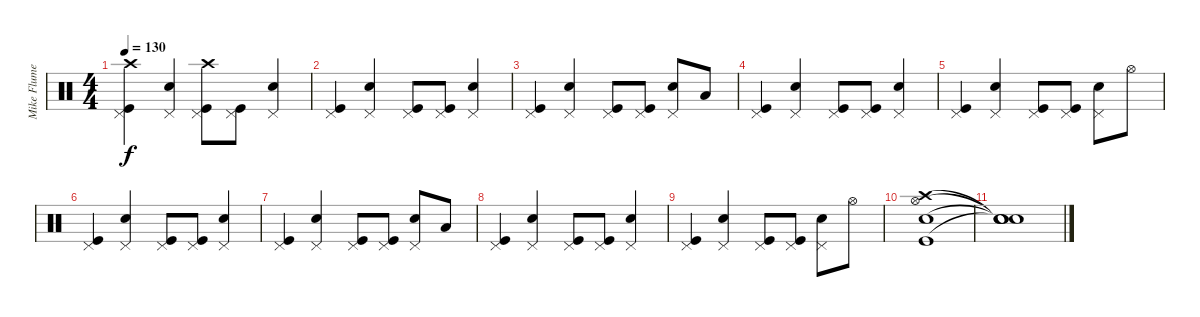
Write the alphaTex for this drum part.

\track ("Mike Flumee" "Mike Flume") {instrument percussion}
\staff {score}
\articulation defaults
\ts (4 4)
\tempo 130
\clef neutral
\ks c
("Crash high (hit)" "Pedal Hi-Hat (hit)" "Kick (hit)").4{dy f} ("Pedal Hi-Hat (hit)" "Electric Snare (hit)").4 ("Crash high (hit)" "Pedal Hi-Hat (hit)" "Kick (hit)").8 ("Pedal Hi-Hat (hit)" "Kick (hit)").8 ("Pedal Hi-Hat (hit)" "Electric Snare (hit)").4 |
("Pedal Hi-Hat (hit)" "Kick (hit)").4 ("Pedal Hi-Hat (hit)" "Electric Snare (hit)").4 ("Pedal Hi-Hat (hit)" "Kick (hit)").8 ("Pedal Hi-Hat (hit)" "Kick (hit)").8 ("Pedal Hi-Hat (hit)" "Electric Snare (hit)").4 |
("Pedal Hi-Hat (hit)" "Kick (hit)").4 ("Pedal Hi-Hat (hit)" "Electric Snare (hit)").4 ("Pedal Hi-Hat (hit)" "Kick (hit)").8 ("Pedal Hi-Hat (hit)" "Kick (hit)").8 ("Pedal Hi-Hat (hit)" "Electric Snare (hit)").8 "Low Tom (hit)".8 |
("Pedal Hi-Hat (hit)" "Kick (hit)").4 ("Pedal Hi-Hat (hit)" "Electric Snare (hit)").4 ("Pedal Hi-Hat (hit)" "Kick (hit)").8 ("Pedal Hi-Hat (hit)" "Kick (hit)").8 ("Pedal Hi-Hat (hit)" "Electric Snare (hit)").4 |
("Pedal Hi-Hat (hit)" "Kick (hit)").4 ("Pedal Hi-Hat (hit)" "Electric Snare (hit)").4 ("Pedal Hi-Hat (hit)" "Kick (hit)").8 ("Pedal Hi-Hat (hit)" "Kick (hit)").8 ("Pedal Hi-Hat (hit)" "Electric Snare (hit)").8 "Hi-Hat (open)".8 |
("Pedal Hi-Hat (hit)" "Kick (hit)").4 ("Pedal Hi-Hat (hit)" "Electric Snare (hit)").4 ("Pedal Hi-Hat (hit)" "Kick (hit)").8 ("Pedal Hi-Hat (hit)" "Kick (hit)").8 ("Pedal Hi-Hat (hit)" "Electric Snare (hit)").4 |
("Pedal Hi-Hat (hit)" "Kick (hit)").4 ("Pedal Hi-Hat (hit)" "Electric Snare (hit)").4 ("Pedal Hi-Hat (hit)" "Kick (hit)").8 ("Pedal Hi-Hat (hit)" "Kick (hit)").8 ("Pedal Hi-Hat (hit)" "Electric Snare (hit)").8 "Low Tom (hit)".8 |
("Pedal Hi-Hat (hit)" "Kick (hit)").4 ("Pedal Hi-Hat (hit)" "Electric Snare (hit)").4 ("Pedal Hi-Hat (hit)" "Kick (hit)").8 ("Pedal Hi-Hat (hit)" "Kick (hit)").8 ("Pedal Hi-Hat (hit)" "Electric Snare (hit)").4 |
("Pedal Hi-Hat (hit)" "Kick (hit)").4 ("Pedal Hi-Hat (hit)" "Electric Snare (hit)").4 ("Pedal Hi-Hat (hit)" "Kick (hit)").8 ("Pedal Hi-Hat (hit)" "Kick (hit)").8 ("Pedal Hi-Hat (hit)" "Electric Snare (hit)").8 "Hi-Hat (open)".8 |
("Crash high (hit)" "Hi-Hat (open)" "Electric Snare (hit)" "Kick (hit)").1 |
("Snare (hit)"{t} "Snare (hit)"{t} "Snare (hit)"{t} "Snare (hit)"{t}).1
